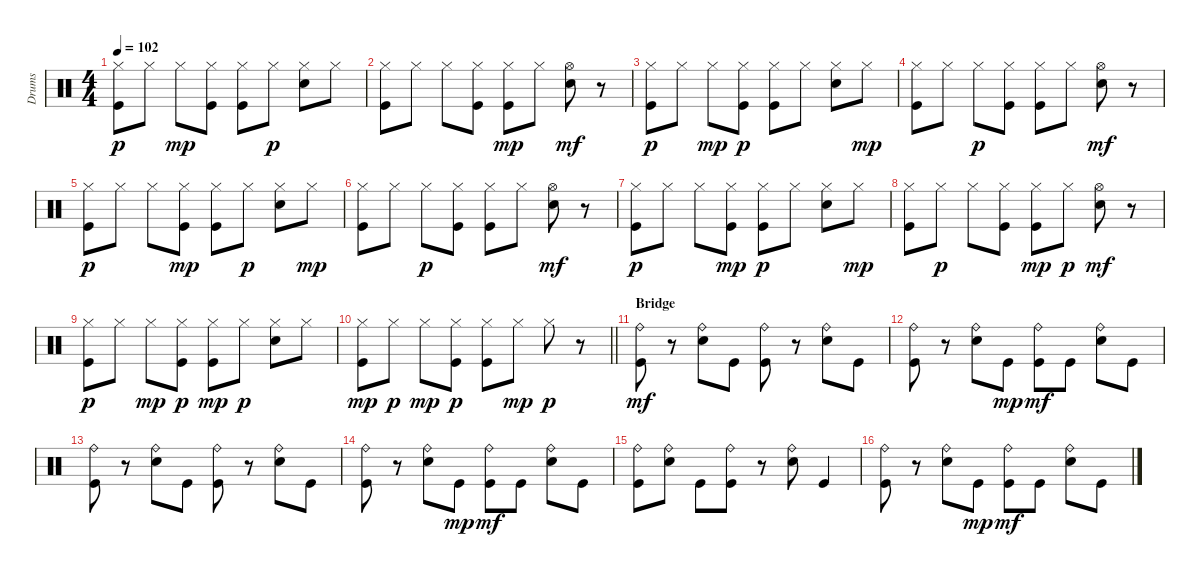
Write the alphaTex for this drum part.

\track ("Drums" "Drums") {instrument percussion}
\staff {score}
\articulation defaults
\ts (4 4)
\tempo 102
\clef neutral
\ks c
("Kick (hit)" "Hi-Hat (closed)").8{dy p} "Hi-Hat (closed)".8 "Hi-Hat (closed)".8{dy mp} ("Kick (hit)" "Hi-Hat (closed)").8 ("Kick (hit)" "Hi-Hat (closed)").8 "Hi-Hat (closed)".8{dy p} ("Snare (hit) 2" "Hi-Hat (closed)").8 "Hi-Hat (closed)".8 |
("Kick (hit)" "Hi-Hat (closed)").8 "Hi-Hat (closed)".8 "Hi-Hat (closed)".8 ("Kick (hit)" "Hi-Hat (closed)").8 ("Kick (hit)" "Hi-Hat (closed)").8{dy mp} "Hi-Hat (closed)".8 ("Hi-Hat (open)" "Snare (hit) 2").8{dy mf} r.8 |
("Kick (hit)" "Hi-Hat (closed)").8{dy p} "Hi-Hat (closed)".8 "Hi-Hat (closed)".8{dy mp} ("Kick (hit)" "Hi-Hat (closed)").8{dy p} ("Kick (hit)" "Hi-Hat (closed)").8 "Hi-Hat (closed)".8 ("Snare (hit) 2" "Hi-Hat (closed)").8 "Hi-Hat (closed)".8{dy mp} |
("Kick (hit)" "Hi-Hat (closed)").8 "Hi-Hat (closed)".8 "Hi-Hat (closed)".8{dy p} ("Kick (hit)" "Hi-Hat (closed)").8 ("Kick (hit)" "Hi-Hat (closed)").8 "Hi-Hat (closed)".8 ("Hi-Hat (open)" "Snare (hit) 2").8{dy mf} r.8 |
("Kick (hit)" "Hi-Hat (closed)").8{dy p} "Hi-Hat (closed)".8 "Hi-Hat (closed)".8 ("Kick (hit)" "Hi-Hat (closed)").8{dy mp} ("Kick (hit)" "Hi-Hat (closed)").8 "Hi-Hat (closed)".8{dy p} ("Snare (hit) 2" "Hi-Hat (closed)").8 "Hi-Hat (closed)".8{dy mp} |
("Kick (hit)" "Hi-Hat (closed)").8 "Hi-Hat (closed)".8 "Hi-Hat (closed)".8{dy p} ("Kick (hit)" "Hi-Hat (closed)").8 ("Kick (hit)" "Hi-Hat (closed)").8 "Hi-Hat (closed)".8 ("Hi-Hat (open)" "Snare (hit) 2").8{dy mf} r.8 |
("Kick (hit)" "Hi-Hat (closed)").8{dy p} "Hi-Hat (closed)".8 "Hi-Hat (closed)".8 ("Kick (hit)" "Hi-Hat (closed)").8{dy mp} ("Kick (hit)" "Hi-Hat (closed)").8{dy p} "Hi-Hat (closed)".8 ("Snare (hit) 2" "Hi-Hat (closed)").8 "Hi-Hat (closed)".8{dy mp} |
("Kick (hit)" "Hi-Hat (closed)").8 "Hi-Hat (closed)".8{dy p} "Hi-Hat (closed)".8 ("Kick (hit)" "Hi-Hat (closed)").8 ("Kick (hit)" "Hi-Hat (closed)").8{dy mp} "Hi-Hat (closed)".8{dy p} ("Hi-Hat (open)" "Snare (hit) 2").8{dy mf} r.8 |
("Kick (hit)" "Hi-Hat (closed)").8{dy p} "Hi-Hat (closed)".8 "Hi-Hat (closed)".8{dy mp} ("Kick (hit)" "Hi-Hat (closed)").8{dy p} ("Kick (hit)" "Hi-Hat (closed)").8{dy mp} "Hi-Hat (closed)".8{dy p} ("Snare (hit) 2" "Hi-Hat (closed)").8 "Hi-Hat (closed)".8 |
\barLineRight lightlight
("Kick (hit)" "Hi-Hat (closed)").8{dy mp} "Hi-Hat (closed)".8{dy p} "Hi-Hat (closed)".8{dy mp} ("Kick (hit)" "Hi-Hat (closed)").8{dy p} ("Kick (hit)" "Hi-Hat (closed)").8 "Hi-Hat (closed)".8{dy mp} "Hi-Hat (closed)".8{dy p} r.8 |
\section ("" "Bridge")
("Ride (bell)" "Kick (hit)").8{dy mf} r.8 ("Ride (bell)" "Snare (hit) 2").8 "Kick (hit)".8 ("Ride (bell)" "Kick (hit)").8 r.8 ("Ride (bell)" "Snare (hit) 2").8 "Kick (hit)".8 |
("Ride (bell)" "Kick (hit)").8 r.8 ("Ride (bell)" "Snare (hit) 2").8 "Kick (hit)".8{dy mp} ("Ride (bell)" "Kick (hit)").8{dy mf} "Kick (hit)".8 ("Ride (bell)" "Snare (hit) 2").8 "Kick (hit)".8 |
("Ride (bell)" "Kick (hit)").8 r.8 ("Ride (bell)" "Snare (hit) 2").8 "Kick (hit)".8 ("Ride (bell)" "Kick (hit)").8 r.8 ("Ride (bell)" "Snare (hit) 2").8 "Kick (hit)".8 |
("Ride (bell)" "Kick (hit)").8 r.8 ("Ride (bell)" "Snare (hit) 2").8 "Kick (hit)".8{dy mp} ("Ride (bell)" "Kick (hit)").8{dy mf} "Kick (hit)".8 ("Ride (bell)" "Snare (hit) 2").8 "Kick (hit)".8 |
("Ride (bell)" "Kick (hit)").8 ("Ride (bell)" "Snare (hit) 2").8 "Kick (hit)".8 ("Ride (bell)" "Kick (hit)").8 r.8 ("Ride (bell)" "Snare (hit) 2").8 "Kick (hit)".4 |
("Ride (bell)" "Kick (hit)").8 r.8 ("Ride (bell)" "Snare (hit) 2").8 "Kick (hit)".8{dy mp} ("Ride (bell)" "Kick (hit)").8{dy mf} "Kick (hit)".8 ("Ride (bell)" "Snare (hit) 2").8 "Kick (hit)".8
